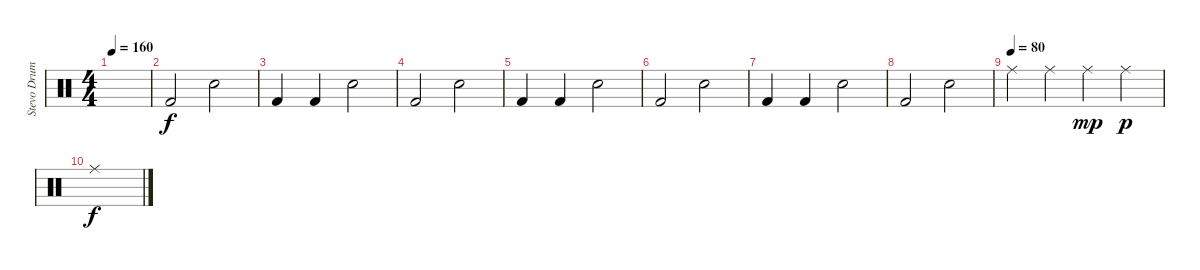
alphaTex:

\track ("Stevo Drums" "Stevo Drum") {instrument percussion}
\staff {score}
\articulation defaults
\ts (4 4)
\tempo 160
\clef neutral
\ks c
|
"Kick (hit) 2".2 "Electric Snare (hit)".2 |
"Kick (hit) 2".4 "Kick (hit) 2".4 "Electric Snare (hit)".2 |
"Kick (hit) 2".2 "Electric Snare (hit)".2 |
"Kick (hit) 2".4 "Kick (hit) 2".4 "Electric Snare (hit)".2 |
"Kick (hit) 2".2 "Electric Snare (hit)".2 |
"Kick (hit) 2".4 "Kick (hit) 2".4 "Electric Snare (hit)".2 |
"Kick (hit) 2".2 "Electric Snare (hit)".2 |
\tempo (80)
"Ride (middle)".4 "Ride (middle)".4 "Ride (middle)".4{dy mp} "Ride (middle)".4{dy p} |
"Ride (middle)".1{dy f}
